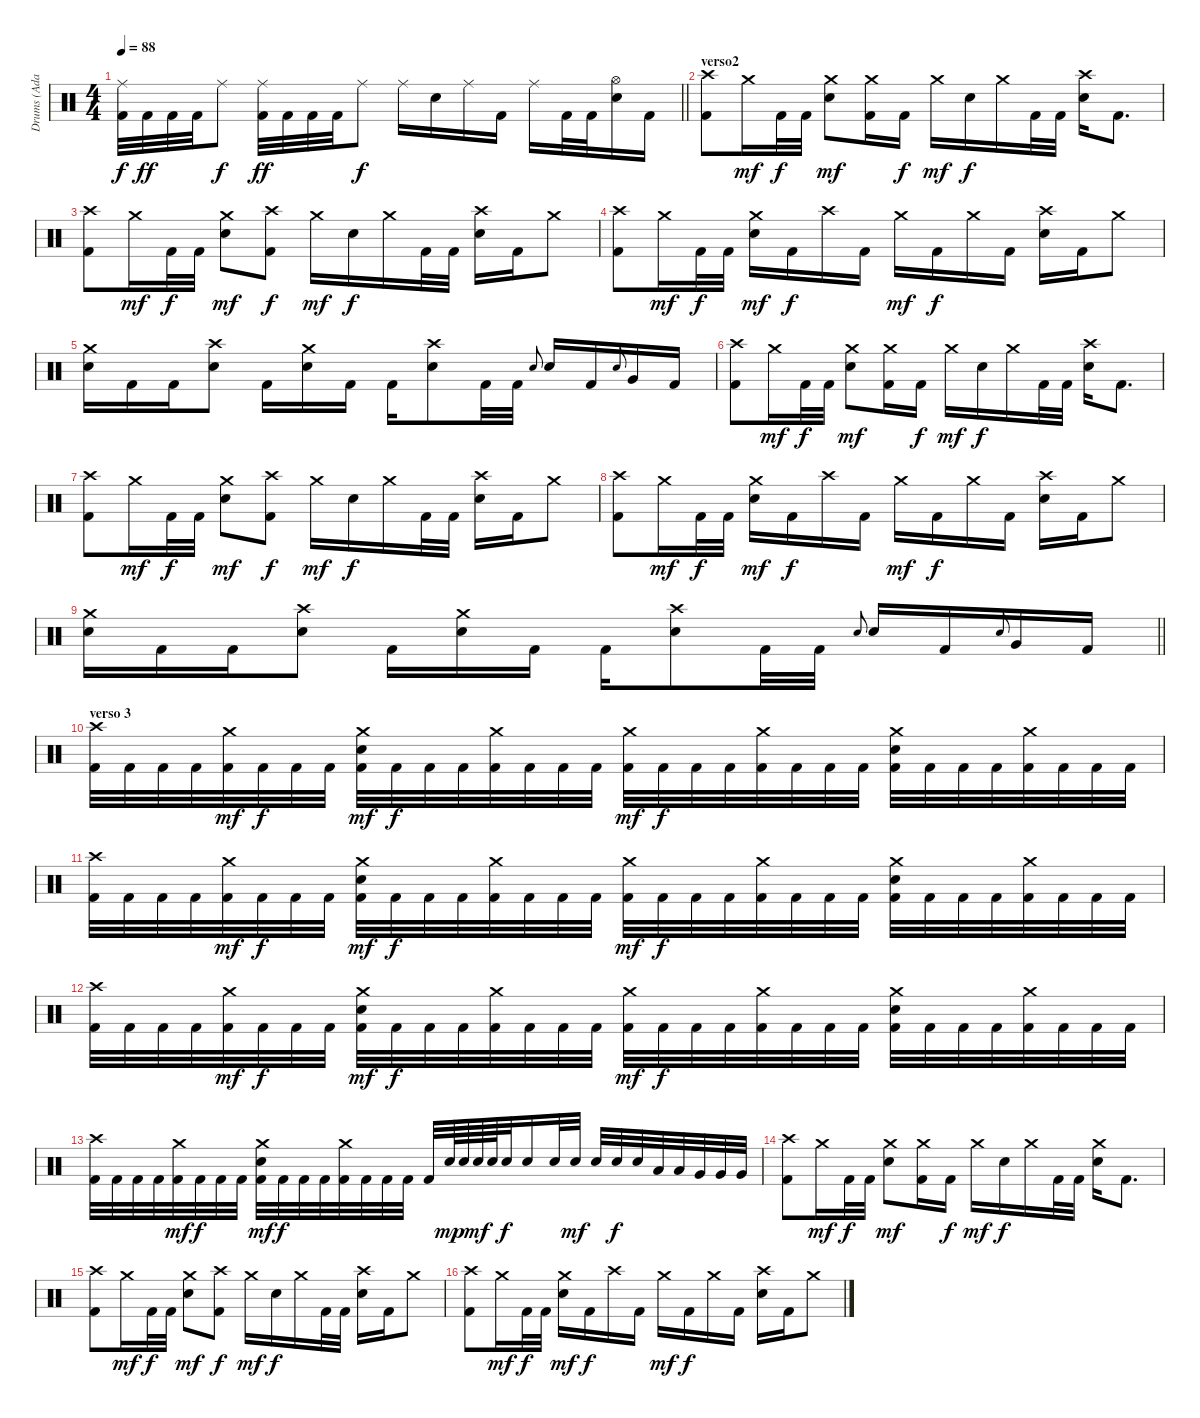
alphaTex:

\track ("Drums (Adam Morgan)" "Drums (Ada") {instrument percussion}
\staff {score}
\articulation defaults
\ts (4 4)
\tempo 88
\clef neutral
\barLineRight lightlight
\ks c
("Ride (middle)" "Kick (hit) 2").32{dy f} "Kick (hit) 2".32{dy ff} "Kick (hit) 2".32 "Kick (hit) 2".32 "Ride (middle)".8{dy f} ("Ride (middle)" "Kick (hit) 2").32{dy ff} "Kick (hit) 2".32 "Kick (hit) 2".32 "Kick (hit) 2".32 "Ride (middle)".8{dy f} "Ride (middle)".16 "Snare (hit) 2".16 "Ride (middle)".16 "Kick (hit) 2".16 "Ride (middle)".16 "Kick (hit) 2".32 "Kick (hit) 2".32 ("Hi-Hat (open)" "Snare (hit) 2").16 "Kick (hit) 2".16 |
\section ("" "verso2")
("Crash high (hit)" "Kick (hit) 2").8 "Crash medium (hit)".16{dy mf} "Kick (hit) 2".32{dy f} "Kick (hit) 2".32 ("Crash medium (hit)" "Snare (hit) 2").8{dy mf} ("Crash medium (hit)" "Kick (hit) 2").16 "Kick (hit) 2".16{dy f} "Crash medium (hit)".16{dy mf} "Snare (hit) 2".16{dy f} "Crash medium (hit)".16 "Kick (hit) 2".32 "Kick (hit) 2".32 ("Crash high (hit)" "Snare (hit) 2").16 "Kick (hit) 2".8{d} |
("Crash high (hit)" "Kick (hit) 2").8 "Crash medium (hit)".16{dy mf} "Kick (hit) 2".32{dy f} "Kick (hit) 2".32 ("Crash medium (hit)" "Snare (hit) 2").8{dy mf} ("Crash high (hit)" "Kick (hit) 2").8{dy f} "Crash medium (hit)".16{dy mf} "Snare (hit) 2".16{dy f} "Crash medium (hit)".16 "Kick (hit) 2".32 "Kick (hit) 2".32 ("Crash high (hit)" "Snare (hit) 2").16 "Kick (hit) 2".16 "Crash medium (hit)".8 |
("Crash high (hit)" "Kick (hit) 2").8 "Crash medium (hit)".16{dy mf} "Kick (hit) 2".32{dy f} "Kick (hit) 2".32 ("Crash medium (hit)" "Snare (hit) 2").16{dy mf} "Kick (hit) 2".16{dy f} "Crash high (hit)".16 "Kick (hit) 2".16 "Crash medium (hit)".16{dy mf} "Kick (hit) 2".16{dy f} "Crash medium (hit)".16 "Kick (hit) 2".16 ("Crash high (hit)" "Snare (hit) 2").16 "Kick (hit) 2".16 "Crash medium (hit)".8 |
("Crash medium (hit)" "Snare (hit) 2").16 "Kick (hit) 2".16 "Kick (hit) 2".16 ("Crash high (hit)" "Snare (hit) 2").8 "Kick (hit) 2".16 ("Crash medium (hit)" "Snare (hit) 2").16 "Kick (hit) 2".16 "Kick (hit) 2".16 ("Crash high (hit)" "Snare (hit) 2").8 "Kick (hit) 2".32 "Kick (hit) 2".32 "Snare (hit) 2".8{gr onbeat} "Snare (hit) 2".16 "Kick (hit) 2".16 "Snare (hit) 2".8{gr onbeat} "Very Low Tom (hit)".16 "Kick (hit) 2".16 |
("Crash high (hit)" "Kick (hit) 2").8 "Crash medium (hit)".16{dy mf} "Kick (hit) 2".32{dy f} "Kick (hit) 2".32 ("Crash medium (hit)" "Snare (hit) 2").8{dy mf} ("Crash medium (hit)" "Kick (hit) 2").16 "Kick (hit) 2".16{dy f} "Crash medium (hit)".16{dy mf} "Snare (hit) 2".16{dy f} "Crash medium (hit)".16 "Kick (hit) 2".32 "Kick (hit) 2".32 ("Crash high (hit)" "Snare (hit) 2").16 "Kick (hit) 2".8{d} |
("Crash high (hit)" "Kick (hit) 2").8 "Crash medium (hit)".16{dy mf} "Kick (hit) 2".32{dy f} "Kick (hit) 2".32 ("Crash medium (hit)" "Snare (hit) 2").8{dy mf} ("Crash high (hit)" "Kick (hit) 2").8{dy f} "Crash medium (hit)".16{dy mf} "Snare (hit) 2".16{dy f} "Crash medium (hit)".16 "Kick (hit) 2".32 "Kick (hit) 2".32 ("Crash high (hit)" "Snare (hit) 2").16 "Kick (hit) 2".16 "Crash medium (hit)".8 |
("Crash high (hit)" "Kick (hit) 2").8 "Crash medium (hit)".16{dy mf} "Kick (hit) 2".32{dy f} "Kick (hit) 2".32 ("Crash medium (hit)" "Snare (hit) 2").16{dy mf} "Kick (hit) 2".16{dy f} "Crash high (hit)".16 "Kick (hit) 2".16 "Crash medium (hit)".16{dy mf} "Kick (hit) 2".16{dy f} "Crash medium (hit)".16 "Kick (hit) 2".16 ("Crash high (hit)" "Snare (hit) 2").16 "Kick (hit) 2".16 "Crash medium (hit)".8 |
\barLineRight lightlight
("Crash medium (hit)" "Snare (hit) 2").16 "Kick (hit) 2".16 "Kick (hit) 2".16 ("Crash high (hit)" "Snare (hit) 2").8 "Kick (hit) 2".16 ("Crash medium (hit)" "Snare (hit) 2").16 "Kick (hit) 2".16 "Kick (hit) 2".16 ("Crash high (hit)" "Snare (hit) 2").8 "Kick (hit) 2".32 "Kick (hit) 2".32 "Snare (hit) 2".8{gr onbeat} "Snare (hit) 2".16 "Kick (hit) 2".16 "Snare (hit) 2".8{gr onbeat} "Very Low Tom (hit)".16 "Kick (hit) 2".16 |
\section ("" "verso 3")
("Crash high (hit)" "Kick (hit) 2").32 "Kick (hit) 2".32 "Kick (hit) 2".32 "Kick (hit) 2".32 ("Crash medium (hit)" "Kick (hit) 2").32{dy mf} "Kick (hit) 2".32{dy f} "Kick (hit) 2".32 "Kick (hit) 2".32 ("Crash medium (hit)" "Snare (hit) 2" "Kick (hit) 2").32{dy mf} "Kick (hit) 2".32{dy f} "Kick (hit) 2".32 "Kick (hit) 2".32 ("Crash medium (hit)" "Kick (hit) 2").32 "Kick (hit) 2".32 "Kick (hit) 2".32 "Kick (hit) 2".32 ("Crash medium (hit)" "Kick (hit) 2").32{dy mf} "Kick (hit) 2".32{dy f} "Kick (hit) 2".32 "Kick (hit) 2".32 ("Crash medium (hit)" "Kick (hit) 2").32 "Kick (hit) 2".32 "Kick (hit) 2".32 "Kick (hit) 2".32 ("Crash medium (hit)" "Snare (hit) 2" "Kick (hit) 2").32 "Kick (hit) 2".32 "Kick (hit) 2".32 "Kick (hit) 2".32 ("Crash medium (hit)" "Kick (hit) 2").32 "Kick (hit) 2".32 "Kick (hit) 2".32 "Kick (hit) 2".32 |
("Crash high (hit)" "Kick (hit) 2").32 "Kick (hit) 2".32 "Kick (hit) 2".32 "Kick (hit) 2".32 ("Crash medium (hit)" "Kick (hit) 2").32{dy mf} "Kick (hit) 2".32{dy f} "Kick (hit) 2".32 "Kick (hit) 2".32 ("Crash medium (hit)" "Snare (hit) 2" "Kick (hit) 2").32{dy mf} "Kick (hit) 2".32{dy f} "Kick (hit) 2".32 "Kick (hit) 2".32 ("Crash medium (hit)" "Kick (hit) 2").32 "Kick (hit) 2".32 "Kick (hit) 2".32 "Kick (hit) 2".32 ("Crash medium (hit)" "Kick (hit) 2").32{dy mf} "Kick (hit) 2".32{dy f} "Kick (hit) 2".32 "Kick (hit) 2".32 ("Crash medium (hit)" "Kick (hit) 2").32 "Kick (hit) 2".32 "Kick (hit) 2".32 "Kick (hit) 2".32 ("Crash medium (hit)" "Snare (hit) 2" "Kick (hit) 2").32 "Kick (hit) 2".32 "Kick (hit) 2".32 "Kick (hit) 2".32 ("Crash medium (hit)" "Kick (hit) 2").32 "Kick (hit) 2".32 "Kick (hit) 2".32 "Kick (hit) 2".32 |
("Crash high (hit)" "Kick (hit) 2").32 "Kick (hit) 2".32 "Kick (hit) 2".32 "Kick (hit) 2".32 ("Crash medium (hit)" "Kick (hit) 2").32{dy mf} "Kick (hit) 2".32{dy f} "Kick (hit) 2".32 "Kick (hit) 2".32 ("Crash medium (hit)" "Snare (hit) 2" "Kick (hit) 2").32{dy mf} "Kick (hit) 2".32{dy f} "Kick (hit) 2".32 "Kick (hit) 2".32 ("Crash medium (hit)" "Kick (hit) 2").32 "Kick (hit) 2".32 "Kick (hit) 2".32 "Kick (hit) 2".32 ("Crash medium (hit)" "Kick (hit) 2").32{dy mf} "Kick (hit) 2".32{dy f} "Kick (hit) 2".32 "Kick (hit) 2".32 ("Crash medium (hit)" "Kick (hit) 2").32 "Kick (hit) 2".32 "Kick (hit) 2".32 "Kick (hit) 2".32 ("Crash medium (hit)" "Snare (hit) 2" "Kick (hit) 2").32 "Kick (hit) 2".32 "Kick (hit) 2".32 "Kick (hit) 2".32 ("Crash medium (hit)" "Kick (hit) 2").32 "Kick (hit) 2".32 "Kick (hit) 2".32 "Kick (hit) 2".32 |
("Crash high (hit)" "Kick (hit) 2").32 "Kick (hit) 2".32 "Kick (hit) 2".32 "Kick (hit) 2".32 ("Crash medium (hit)" "Kick (hit) 2").32{dy mf} "Kick (hit) 2".32{dy f} "Kick (hit) 2".32 "Kick (hit) 2".32 ("Crash medium (hit)" "Snare (hit) 2" "Kick (hit) 2").32{dy mf} "Kick (hit) 2".32{dy f} "Kick (hit) 2".32 "Kick (hit) 2".32 ("Crash medium (hit)" "Kick (hit) 2").32 "Kick (hit) 2".32 "Kick (hit) 2".32 "Kick (hit) 2".32 "Kick (hit) 2".32 "Snare (hit) 2".64{dy mp} "Snare (hit) 2".64 "Snare (hit) 2".64{dy mf} "Snare (hit) 2".64 "Snare (hit) 2".32{dy f} "Snare (hit) 2".16 "Snare (hit) 2".32 "Snare (hit) 2".32{dy mf} "Snare (hit) 2".32 "Snare (hit) 2".32{dy f} "Snare (hit) 2".32 "Low Tom (hit)".32 "Low Tom (hit)".32 "Very Low Tom (hit)".32 "Very Low Tom (hit)".32 "Very Low Tom (hit)".32 |
("Crash high (hit)" "Kick (hit) 2").8 "Crash medium (hit)".16{dy mf} "Kick (hit) 2".32{dy f} "Kick (hit) 2".32 ("Crash medium (hit)" "Snare (hit) 2").8{dy mf} ("Crash medium (hit)" "Kick (hit) 2").16 "Kick (hit) 2".16{dy f} "Crash medium (hit)".16{dy mf} "Snare (hit) 2".16{dy f} "Crash medium (hit)".16 "Kick (hit) 2".32 "Kick (hit) 2".32 ("Crash medium (hit)" "Snare (hit) 2").16 "Kick (hit) 2".8{d} |
("Crash high (hit)" "Kick (hit) 2").8 "Crash medium (hit)".16{dy mf} "Kick (hit) 2".32{dy f} "Kick (hit) 2".32 ("Crash medium (hit)" "Snare (hit) 2").8{dy mf} ("Crash high (hit)" "Kick (hit) 2").8{dy f} "Crash medium (hit)".16{dy mf} "Snare (hit) 2".16{dy f} "Crash medium (hit)".16 "Kick (hit) 2".32 "Kick (hit) 2".32 ("Crash high (hit)" "Snare (hit) 2").16 "Kick (hit) 2".16 "Crash medium (hit)".8 |
("Crash high (hit)" "Kick (hit) 2").8 "Crash medium (hit)".16{dy mf} "Kick (hit) 2".32{dy f} "Kick (hit) 2".32 ("Crash medium (hit)" "Snare (hit) 2").16{dy mf} "Kick (hit) 2".16{dy f} "Crash high (hit)".16 "Kick (hit) 2".16 "Crash medium (hit)".16{dy mf} "Kick (hit) 2".16{dy f} "Crash medium (hit)".16 "Kick (hit) 2".16 ("Crash high (hit)" "Snare (hit) 2").16 "Kick (hit) 2".16 "Crash medium (hit)".8
